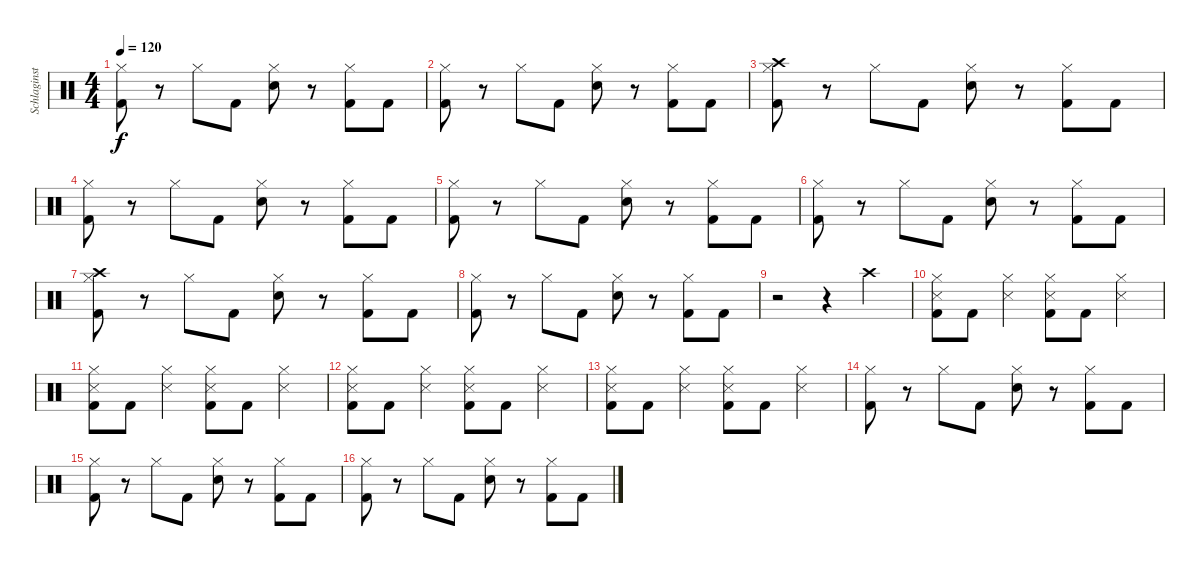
\track ("Schlaginstrumente - Auswahl" "Schlaginst") {instrument percussion}
\staff {score}
\articulation defaults
\ts (4 4)
\tempo 120
\clef neutral
\ks c
("Hi-Hat (closed)" "Kick (hit) 2").8{dy f} r.8 "Hi-Hat (closed)".8 "Kick (hit) 2".8 ("Hi-Hat (closed)" "Snare (hit) 2").8 r.8 ("Hi-Hat (closed)" "Kick (hit) 2").8 "Kick (hit) 2".8 |
("Hi-Hat (closed)" "Kick (hit) 2").8 r.8 "Hi-Hat (closed)".8 "Kick (hit) 2".8 ("Hi-Hat (closed)" "Snare (hit) 2").8 r.8 ("Hi-Hat (closed)" "Kick (hit) 2").8 "Kick (hit) 2".8 |
("Crash high (hit)" "Hi-Hat (closed)" "Kick (hit) 2").8 r.8 "Hi-Hat (closed)".8 "Kick (hit) 2".8 ("Hi-Hat (closed)" "Snare (hit) 2").8 r.8 ("Hi-Hat (closed)" "Kick (hit) 2").8 "Kick (hit) 2".8 |
("Hi-Hat (closed)" "Kick (hit) 2").8 r.8 "Hi-Hat (closed)".8 "Kick (hit) 2".8 ("Hi-Hat (closed)" "Snare (hit) 2").8 r.8 ("Hi-Hat (closed)" "Kick (hit) 2").8 "Kick (hit) 2".8 |
("Hi-Hat (closed)" "Kick (hit) 2").8 r.8 "Hi-Hat (closed)".8 "Kick (hit) 2".8 ("Hi-Hat (closed)" "Snare (hit) 2").8 r.8 ("Hi-Hat (closed)" "Kick (hit) 2").8 "Kick (hit) 2".8 |
("Hi-Hat (closed)" "Kick (hit) 2").8 r.8 "Hi-Hat (closed)".8 "Kick (hit) 2".8 ("Hi-Hat (closed)" "Snare (hit) 2").8 r.8 ("Hi-Hat (closed)" "Kick (hit) 2").8 "Kick (hit) 2".8 |
("Crash high (hit)" "Hi-Hat (closed)" "Kick (hit) 2").8 r.8 "Hi-Hat (closed)".8 "Kick (hit) 2".8 ("Hi-Hat (closed)" "Snare (hit) 2").8 r.8 ("Hi-Hat (closed)" "Kick (hit) 2").8 "Kick (hit) 2".8 |
("Hi-Hat (closed)" "Kick (hit) 2").8 r.8 "Hi-Hat (closed)".8 "Kick (hit) 2".8 ("Hi-Hat (closed)" "Snare (hit) 2").8 r.8 ("Hi-Hat (closed)" "Kick (hit) 2").8 "Kick (hit) 2".8 |
r.2 r.4 "Crash high (hit)".4 |
("Kick (hit) 2" "Hi-Hat (closed)" "Snare (side stick) 3").8 "Kick (hit) 2".8 ("Hi-Hat (closed)" "Snare (side stick) 3").4 ("Kick (hit) 2" "Hi-Hat (closed)" "Snare (side stick) 3").8 "Kick (hit) 2".8 ("Hi-Hat (closed)" "Snare (side stick) 3").4 |
("Kick (hit) 2" "Hi-Hat (closed)" "Snare (side stick) 3").8 "Kick (hit) 2".8 ("Hi-Hat (closed)" "Snare (side stick) 3").4 ("Kick (hit) 2" "Hi-Hat (closed)" "Snare (side stick) 3").8 "Kick (hit) 2".8 ("Hi-Hat (closed)" "Snare (side stick) 3").4 |
("Kick (hit) 2" "Hi-Hat (closed)" "Snare (side stick) 3").8 "Kick (hit) 2".8 ("Hi-Hat (closed)" "Snare (side stick) 3").4 ("Kick (hit) 2" "Hi-Hat (closed)" "Snare (side stick) 3").8 "Kick (hit) 2".8 ("Hi-Hat (closed)" "Snare (side stick) 3").4 |
("Kick (hit) 2" "Hi-Hat (closed)" "Snare (side stick) 3").8 "Kick (hit) 2".8 ("Hi-Hat (closed)" "Snare (side stick) 3").4 ("Kick (hit) 2" "Hi-Hat (closed)" "Snare (side stick) 3").8 "Kick (hit) 2".8 ("Hi-Hat (closed)" "Snare (side stick) 3").4 |
("Hi-Hat (closed)" "Kick (hit) 2").8 r.8 "Hi-Hat (closed)".8 "Kick (hit) 2".8 ("Hi-Hat (closed)" "Snare (hit) 2").8 r.8 ("Hi-Hat (closed)" "Kick (hit) 2").8 "Kick (hit) 2".8 |
("Hi-Hat (closed)" "Kick (hit) 2").8 r.8 "Hi-Hat (closed)".8 "Kick (hit) 2".8 ("Hi-Hat (closed)" "Snare (hit) 2").8 r.8 ("Hi-Hat (closed)" "Kick (hit) 2").8 "Kick (hit) 2".8 |
("Hi-Hat (closed)" "Kick (hit) 2").8 r.8 "Hi-Hat (closed)".8 "Kick (hit) 2".8 ("Hi-Hat (closed)" "Snare (hit) 2").8 r.8 ("Hi-Hat (closed)" "Kick (hit) 2").8 "Kick (hit) 2".8
